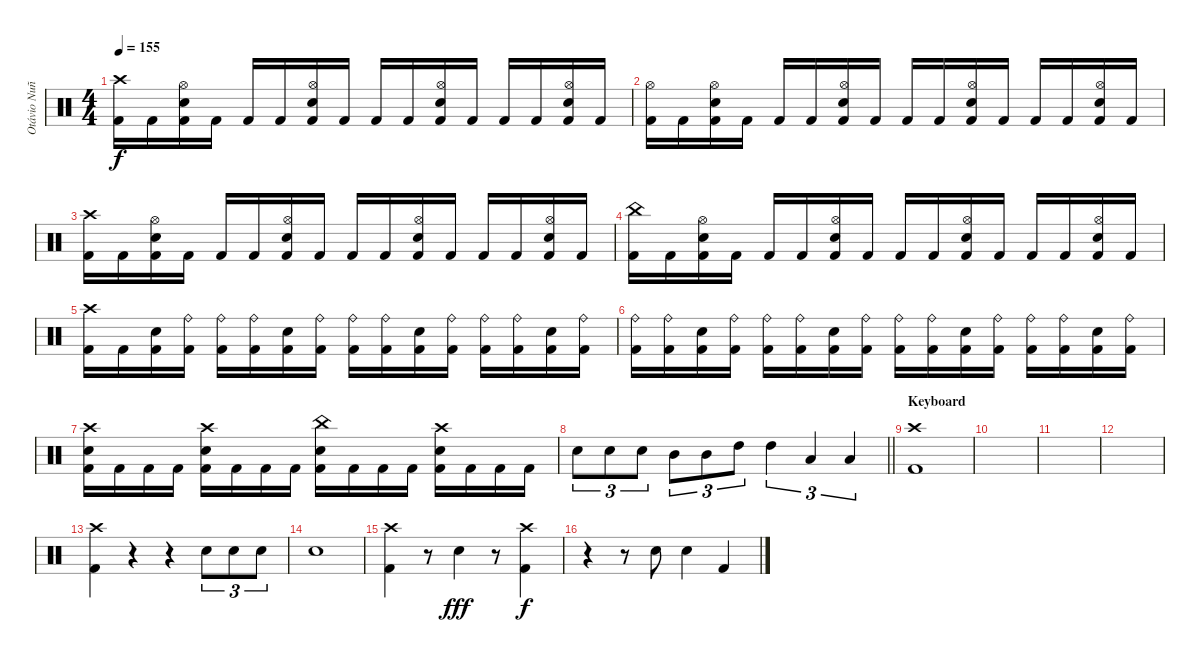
\track ("Otávio Nuñez" "Otávio Nuñ") {instrument percussion}
\staff {score}
\articulation defaults
\ts (4 4)
\tempo 155
\clef neutral
\ks c
("Crash high (hit)" "Kick (hit) 2").16{dy f} "Kick (hit) 2".16 ("Hi-Hat (open)" "Electric Snare (hit)" "Kick (hit) 2").16 "Kick (hit) 2".16 "Kick (hit) 2".16 "Kick (hit) 2".16 ("Hi-Hat (open)" "Electric Snare (hit)" "Kick (hit) 2").16 "Kick (hit) 2".16 "Kick (hit) 2".16 "Kick (hit) 2".16 ("Hi-Hat (open)" "Electric Snare (hit)" "Kick (hit) 2").16 "Kick (hit) 2".16 "Kick (hit) 2".16 "Kick (hit) 2".16 ("Hi-Hat (open)" "Electric Snare (hit)" "Kick (hit) 2").16 "Kick (hit) 2".16 |
("Hi-Hat (open)" "Kick (hit) 2").16 "Kick (hit) 2".16 ("Hi-Hat (open)" "Electric Snare (hit)" "Kick (hit) 2").16 "Kick (hit) 2".16 "Kick (hit) 2".16 "Kick (hit) 2".16 ("Hi-Hat (open)" "Electric Snare (hit)" "Kick (hit) 2").16 "Kick (hit) 2".16 "Kick (hit) 2".16 "Kick (hit) 2".16 ("Hi-Hat (open)" "Electric Snare (hit)" "Kick (hit) 2").16 "Kick (hit) 2".16 "Kick (hit) 2".16 "Kick (hit) 2".16 ("Hi-Hat (open)" "Electric Snare (hit)" "Kick (hit) 2").16 "Kick (hit) 2".16 |
("Crash high (hit)" "Kick (hit) 2").16 "Kick (hit) 2".16 ("Hi-Hat (open)" "Electric Snare (hit)" "Kick (hit) 2").16 "Kick (hit) 2".16 "Kick (hit) 2".16 "Kick (hit) 2".16 ("Hi-Hat (open)" "Electric Snare (hit)" "Kick (hit) 2").16 "Kick (hit) 2".16 "Kick (hit) 2".16 "Kick (hit) 2".16 ("Hi-Hat (open)" "Electric Snare (hit)" "Kick (hit) 2").16 "Kick (hit) 2".16 "Kick (hit) 2".16 "Kick (hit) 2".16 ("Hi-Hat (open)" "Electric Snare (hit)" "Kick (hit) 2").16 "Kick (hit) 2".16 |
("China (hit)" "Kick (hit) 2").16 "Kick (hit) 2".16 ("Hi-Hat (open)" "Electric Snare (hit)" "Kick (hit) 2").16 "Kick (hit) 2".16 "Kick (hit) 2".16 "Kick (hit) 2".16 ("Hi-Hat (open)" "Electric Snare (hit)" "Kick (hit) 2").16 "Kick (hit) 2".16 "Kick (hit) 2".16 "Kick (hit) 2".16 ("Hi-Hat (open)" "Electric Snare (hit)" "Kick (hit) 2").16 "Kick (hit) 2".16 "Kick (hit) 2".16 "Kick (hit) 2".16 ("Hi-Hat (open)" "Electric Snare (hit)" "Kick (hit) 2").16 "Kick (hit) 2".16 |
("Crash high (hit)" "Kick (hit) 2").16 "Kick (hit) 2".16 ("Electric Snare (hit)" "Kick (hit) 2").16 ("Ride (bell)" "Kick (hit) 2").16 ("Ride (bell)" "Kick (hit) 2").16 ("Ride (bell)" "Kick (hit) 2").16 ("Electric Snare (hit)" "Kick (hit) 2").16 ("Ride (bell)" "Kick (hit) 2").16 ("Ride (bell)" "Kick (hit) 2").16 ("Ride (bell)" "Kick (hit) 2").16 ("Electric Snare (hit)" "Kick (hit) 2").16 ("Ride (bell)" "Kick (hit) 2").16 ("Ride (bell)" "Kick (hit) 2").16 ("Ride (bell)" "Kick (hit) 2").16 ("Electric Snare (hit)" "Kick (hit) 2").16 ("Ride (bell)" "Kick (hit) 2").16 |
("Ride (bell)" "Kick (hit) 2").16 ("Ride (bell)" "Kick (hit) 2").16 ("Electric Snare (hit)" "Kick (hit) 2").16 ("Ride (bell)" "Kick (hit) 2").16 ("Ride (bell)" "Kick (hit) 2").16 ("Ride (bell)" "Kick (hit) 2").16 ("Electric Snare (hit)" "Kick (hit) 2").16 ("Ride (bell)" "Kick (hit) 2").16 ("Ride (bell)" "Kick (hit) 2").16 ("Ride (bell)" "Kick (hit) 2").16 ("Electric Snare (hit)" "Kick (hit) 2").16 ("Ride (bell)" "Kick (hit) 2").16 ("Ride (bell)" "Kick (hit) 2").16 ("Ride (bell)" "Kick (hit) 2").16 ("Electric Snare (hit)" "Kick (hit) 2").16 ("Ride (bell)" "Kick (hit) 2").16 |
("Crash high (hit)" "Electric Snare (hit)" "Kick (hit) 2").16 "Kick (hit) 2".16 "Kick (hit) 2".16 "Kick (hit) 2".16 ("Crash high (hit)" "Electric Snare (hit)" "Kick (hit) 2").16 "Kick (hit) 2".16 "Kick (hit) 2".16 "Kick (hit) 2".16 ("China (hit)" "Electric Snare (hit)" "Kick (hit) 2").16 "Kick (hit) 2".16 "Kick (hit) 2".16 "Kick (hit) 2".16 ("Crash high (hit)" "Electric Snare (hit)" "Kick (hit) 2").16 "Kick (hit) 2".16 "Kick (hit) 2".16 "Kick (hit) 2".16 |
\barLineRight lightlight "Electric Snare (hit)".8{tu (3 2)} "Electric Snare (hit)".8{tu (3 2)} "Electric Snare (hit)".8{tu (3 2)} "Mid Tom (hit)".8{tu (3 2)} "Mid Tom (hit)".8{tu (3 2)} "High Tom (hit)".8{tu (3 2)} "High Tom (hit)".4{tu (3 2)} "Low Tom (hit)".4{tu (3 2)} "Low Tom (hit)".4{tu (3 2)}
|
\section ("" "Keyboard")
("Crash high (hit)" "Kick (hit) 2").1 |
|
|
|
("Kick (hit) 2" "Crash high (hit)").4 r.4 r.4 "Electric Snare (hit)".8{tu (3 2)} "Electric Snare (hit)".8{tu (3 2)} "Electric Snare (hit)".8{tu (3 2)} |
"Electric Snare (hit)".1 |
("Kick (hit) 2" "Crash high (hit)").4 r.8 "Electric Snare (hit)".4{dy fff} r.8 ("Kick (hit) 2" "Crash high (hit)").4{dy f} |
r.4 r.8 "Electric Snare (hit)".8 "Electric Snare (hit)".4 "Kick (hit) 2".4
